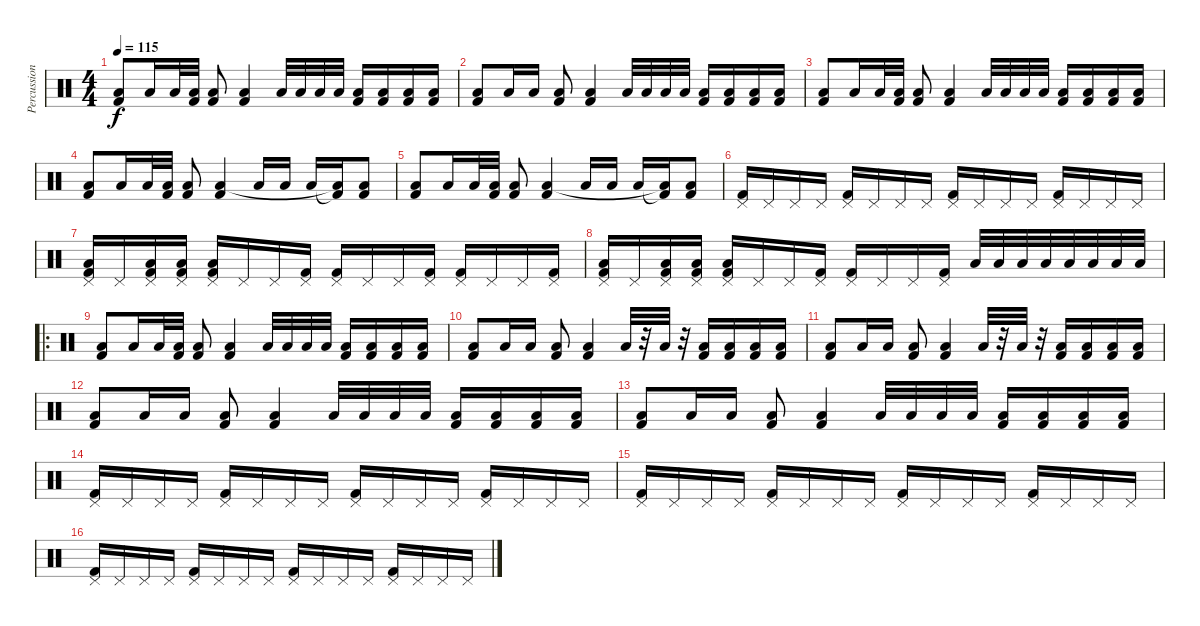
\track ("Percussions" "Percussion") {instrument percussion}
\staff {score}
\articulation defaults
\ts (4 4)
\tempo 115
\clef neutral
\ks c
("Kick (hit) 2" "Low Floor Tom (hit)").8{dy f} "Low Floor Tom (hit)".16 "Low Floor Tom (hit)".32 ("Kick (hit) 2" "Low Floor Tom (hit)").32 ("Kick (hit) 2" "Low Floor Tom (hit)").8 ("Kick (hit) 2" "Low Floor Tom (hit)").4 "Low Floor Tom (hit)".32 "Low Floor Tom (hit)".32 "Low Floor Tom (hit)".32 "Low Floor Tom (hit)".32 ("Kick (hit) 2" "Low Floor Tom (hit)").16 ("Kick (hit) 2" "Low Floor Tom (hit)").16 ("Kick (hit) 2" "Low Floor Tom (hit)").16 ("Kick (hit) 2" "Low Floor Tom (hit)").16 |
("Kick (hit) 2" "Low Floor Tom (hit)").8 "Low Floor Tom (hit)".16 "Low Floor Tom (hit)".16 ("Kick (hit) 2" "Low Floor Tom (hit)").8 ("Kick (hit) 2" "Low Floor Tom (hit)").4 "Low Floor Tom (hit)".32 "Low Floor Tom (hit)".32 "Low Floor Tom (hit)".32 "Low Floor Tom (hit)".32 ("Kick (hit) 2" "Low Floor Tom (hit)").16 ("Kick (hit) 2" "Low Floor Tom (hit)").16 ("Kick (hit) 2" "Low Floor Tom (hit)").16 ("Kick (hit) 2" "Low Floor Tom (hit)").16 |
("Kick (hit) 2" "Low Floor Tom (hit)").8 "Low Floor Tom (hit)".16 "Low Floor Tom (hit)".32 ("Kick (hit) 2" "Low Floor Tom (hit)").32 ("Kick (hit) 2" "Low Floor Tom (hit)").8 ("Kick (hit) 2" "Low Floor Tom (hit)").4 "Low Floor Tom (hit)".32 "Low Floor Tom (hit)".32 "Low Floor Tom (hit)".32 "Low Floor Tom (hit)".32 ("Kick (hit) 2" "Low Floor Tom (hit)").16 ("Kick (hit) 2" "Low Floor Tom (hit)").16 ("Kick (hit) 2" "Low Floor Tom (hit)").16 ("Kick (hit) 2" "Low Floor Tom (hit)").16 |
("Kick (hit) 2" "Low Floor Tom (hit)").8 "Low Floor Tom (hit)".16 "Low Floor Tom (hit)".32 ("Kick (hit) 2" "Low Floor Tom (hit)").32 ("Kick (hit) 2" "Low Floor Tom (hit)").8 ("Kick (hit) 2" "Low Floor Tom (hit)").4 "Low Tom (hit)".16 "Low Tom (hit)".16 "Low Tom (hit)".16 ("Kick (hit) 2"{t} "Low Floor Tom (hit)"{t}).16 ("Kick (hit) 2" "Low Floor Tom (hit)").8 |
("Kick (hit) 2" "Low Floor Tom (hit)").8 "Low Floor Tom (hit)".16 "Low Floor Tom (hit)".32 ("Kick (hit) 2" "Low Floor Tom (hit)").32 ("Kick (hit) 2" "Low Floor Tom (hit)").8 ("Kick (hit) 2" "Low Floor Tom (hit)").4 "Low Tom (hit)".16 "Low Tom (hit)".16 "Low Tom (hit)".16 ("Kick (hit) 2"{t} "Low Floor Tom (hit)"{t}).16 ("Kick (hit) 2" "Low Floor Tom (hit)").8 |
("Kick (hit) 2" "Pedal Hi-Hat (hit)").16 "Pedal Hi-Hat (hit)".16 "Pedal Hi-Hat (hit)".16 "Pedal Hi-Hat (hit)".16 ("Kick (hit) 2" "Pedal Hi-Hat (hit)").16 "Pedal Hi-Hat (hit)".16 "Pedal Hi-Hat (hit)".16 "Pedal Hi-Hat (hit)".16 ("Kick (hit) 2" "Pedal Hi-Hat (hit)").16 "Pedal Hi-Hat (hit)".16 "Pedal Hi-Hat (hit)".16 "Pedal Hi-Hat (hit)".16 ("Kick (hit) 2" "Pedal Hi-Hat (hit)").16 "Pedal Hi-Hat (hit)".16 "Pedal Hi-Hat (hit)".16 "Pedal Hi-Hat (hit)".16 |
("Low Floor Tom (hit)" "Kick (hit) 2" "Pedal Hi-Hat (hit)").16 "Pedal Hi-Hat (hit)".16 ("Kick (hit) 2" "Low Floor Tom (hit)" "Pedal Hi-Hat (hit)").16 ("Kick (hit) 2" "Low Floor Tom (hit)" "Pedal Hi-Hat (hit)").16 ("Kick (hit) 2" "Low Floor Tom (hit)" "Pedal Hi-Hat (hit)").16 "Pedal Hi-Hat (hit)".16 "Pedal Hi-Hat (hit)".16 ("Kick (hit) 2" "Pedal Hi-Hat (hit)").16 ("Kick (hit) 2" "Pedal Hi-Hat (hit)").16 "Pedal Hi-Hat (hit)".16 "Pedal Hi-Hat (hit)".16 ("Kick (hit) 2" "Pedal Hi-Hat (hit)").16 ("Kick (hit) 2" "Pedal Hi-Hat (hit)").16 "Pedal Hi-Hat (hit)".16 "Pedal Hi-Hat (hit)".16 ("Kick (hit) 2" "Pedal Hi-Hat (hit)").16 |
("Low Floor Tom (hit)" "Kick (hit) 2" "Pedal Hi-Hat (hit)").16 "Pedal Hi-Hat (hit)".16 ("Kick (hit) 2" "Low Floor Tom (hit)" "Pedal Hi-Hat (hit)").16 ("Kick (hit) 2" "Low Floor Tom (hit)" "Pedal Hi-Hat (hit)").16 ("Kick (hit) 2" "Low Floor Tom (hit)" "Pedal Hi-Hat (hit)").16 "Pedal Hi-Hat (hit)".16 "Pedal Hi-Hat (hit)".16 ("Kick (hit) 2" "Pedal Hi-Hat (hit)").16 ("Kick (hit) 2" "Pedal Hi-Hat (hit)").16 "Pedal Hi-Hat (hit)".16 "Pedal Hi-Hat (hit)".16 ("Kick (hit) 2" "Pedal Hi-Hat (hit)").16 "Low Tom (hit)".32 "Low Floor Tom (hit)".32 "Low Tom (hit)".32 "Low Floor Tom (hit)".32 "Low Tom (hit)".32 "Low Floor Tom (hit)".32 "Low Tom (hit)".32 "Low Floor Tom (hit)".32 |
\ro
("Kick (hit) 2" "Low Floor Tom (hit)").8 "Low Floor Tom (hit)".16 "Low Floor Tom (hit)".32 ("Kick (hit) 2" "Low Floor Tom (hit)").32 ("Kick (hit) 2" "Low Floor Tom (hit)").8 ("Kick (hit) 2" "Low Floor Tom (hit)").4 "Low Floor Tom (hit)".32 "Low Floor Tom (hit)".32 "Low Floor Tom (hit)".32 "Low Floor Tom (hit)".32 ("Kick (hit) 2" "Low Floor Tom (hit)").16 ("Kick (hit) 2" "Low Floor Tom (hit)").16 ("Kick (hit) 2" "Low Floor Tom (hit)").16 ("Kick (hit) 2" "Low Floor Tom (hit)").16 |
("Kick (hit) 2" "Low Floor Tom (hit)").8 "Low Floor Tom (hit)".16 "Low Floor Tom (hit)".16 ("Kick (hit) 2" "Low Floor Tom (hit)").8 ("Kick (hit) 2" "Low Floor Tom (hit)").4 "Low Floor Tom (hit)".32 r.32 "Low Floor Tom (hit)".32 r.32 ("Kick (hit) 2" "Low Floor Tom (hit)").16 ("Kick (hit) 2" "Low Floor Tom (hit)").16 ("Kick (hit) 2" "Low Floor Tom (hit)").16 ("Kick (hit) 2" "Low Floor Tom (hit)").16 |
("Kick (hit) 2" "Low Floor Tom (hit)").8 "Low Floor Tom (hit)".16 "Low Floor Tom (hit)".16 ("Kick (hit) 2" "Low Floor Tom (hit)").8 ("Kick (hit) 2" "Low Floor Tom (hit)").4 "Low Floor Tom (hit)".32 r.32 "Low Floor Tom (hit)".32 r.32 ("Kick (hit) 2" "Low Floor Tom (hit)").16 ("Kick (hit) 2" "Low Floor Tom (hit)").16 ("Kick (hit) 2" "Low Floor Tom (hit)").16 ("Kick (hit) 2" "Low Floor Tom (hit)").16 |
("Kick (hit) 2" "Low Floor Tom (hit)").8 "Low Floor Tom (hit)".16 "Low Floor Tom (hit)".16 ("Kick (hit) 2" "Low Floor Tom (hit)").8 ("Kick (hit) 2" "Low Floor Tom (hit)").4 "Low Floor Tom (hit)".32 "Low Floor Tom (hit)".32 "Low Floor Tom (hit)".32 "Low Floor Tom (hit)".32 ("Kick (hit) 2" "Low Floor Tom (hit)").16 ("Kick (hit) 2" "Low Floor Tom (hit)").16 ("Kick (hit) 2" "Low Floor Tom (hit)").16 ("Kick (hit) 2" "Low Floor Tom (hit)").16 |
("Kick (hit) 2" "Low Floor Tom (hit)").8 "Low Floor Tom (hit)".16 "Low Floor Tom (hit)".16 ("Kick (hit) 2" "Low Floor Tom (hit)").8 ("Kick (hit) 2" "Low Floor Tom (hit)").4 "Low Floor Tom (hit)".32 "Low Floor Tom (hit)".32 "Low Floor Tom (hit)".32 "Low Floor Tom (hit)".32 ("Kick (hit) 2" "Low Floor Tom (hit)").16 ("Kick (hit) 2" "Low Floor Tom (hit)").16 ("Kick (hit) 2" "Low Floor Tom (hit)").16 ("Kick (hit) 2" "Low Floor Tom (hit)").16 |
("Kick (hit) 2" "Pedal Hi-Hat (hit)").16 "Pedal Hi-Hat (hit)".16 "Pedal Hi-Hat (hit)".16 "Pedal Hi-Hat (hit)".16 ("Kick (hit) 2" "Pedal Hi-Hat (hit)").16 "Pedal Hi-Hat (hit)".16 "Pedal Hi-Hat (hit)".16 "Pedal Hi-Hat (hit)".16 ("Kick (hit) 2" "Pedal Hi-Hat (hit)").16 "Pedal Hi-Hat (hit)".16 "Pedal Hi-Hat (hit)".16 "Pedal Hi-Hat (hit)".16 ("Kick (hit) 2" "Pedal Hi-Hat (hit)").16 "Pedal Hi-Hat (hit)".16 "Pedal Hi-Hat (hit)".16 "Pedal Hi-Hat (hit)".16 |
("Kick (hit) 2" "Pedal Hi-Hat (hit)").16 "Pedal Hi-Hat (hit)".16 "Pedal Hi-Hat (hit)".16 "Pedal Hi-Hat (hit)".16 ("Kick (hit) 2" "Pedal Hi-Hat (hit)").16 "Pedal Hi-Hat (hit)".16 "Pedal Hi-Hat (hit)".16 "Pedal Hi-Hat (hit)".16 ("Kick (hit) 2" "Pedal Hi-Hat (hit)").16 "Pedal Hi-Hat (hit)".16 "Pedal Hi-Hat (hit)".16 "Pedal Hi-Hat (hit)".16 ("Kick (hit) 2" "Pedal Hi-Hat (hit)").16 "Pedal Hi-Hat (hit)".16 "Pedal Hi-Hat (hit)".16 "Pedal Hi-Hat (hit)".16 |
("Kick (hit) 2" "Pedal Hi-Hat (hit)").16 "Pedal Hi-Hat (hit)".16 "Pedal Hi-Hat (hit)".16 "Pedal Hi-Hat (hit)".16 ("Kick (hit) 2" "Pedal Hi-Hat (hit)").16 "Pedal Hi-Hat (hit)".16 "Pedal Hi-Hat (hit)".16 "Pedal Hi-Hat (hit)".16 ("Kick (hit) 2" "Pedal Hi-Hat (hit)").16 "Pedal Hi-Hat (hit)".16 "Pedal Hi-Hat (hit)".16 "Pedal Hi-Hat (hit)".16 ("Kick (hit) 2" "Pedal Hi-Hat (hit)").16 "Pedal Hi-Hat (hit)".16 "Pedal Hi-Hat (hit)".16 "Pedal Hi-Hat (hit)".16
